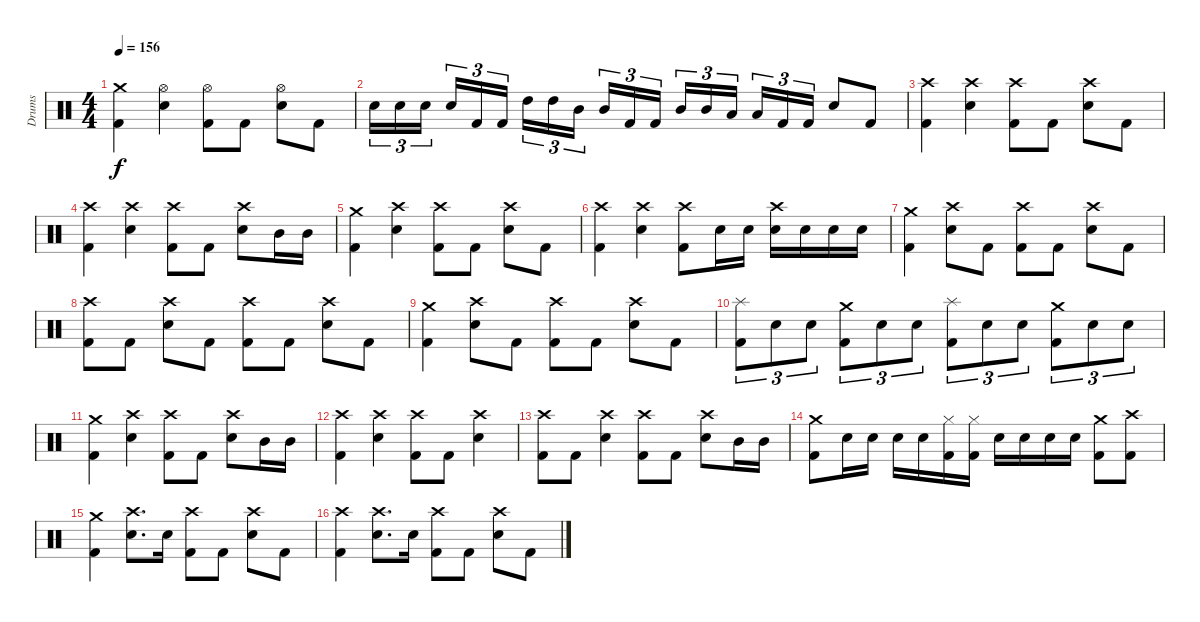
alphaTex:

\track ("Drums" "Drums") {instrument percussion}
\staff {score}
\articulation defaults
\ts (4 4)
\tempo 156
\clef neutral
\ks c
("Crash medium (hit)" "Kick (hit) 2").4{dy f} ("Hi-Hat (open)" "Snare (hit) 2").4 ("Hi-Hat (open)" "Kick (hit) 2").8 "Kick (hit) 2".8 ("Hi-Hat (open)" "Snare (hit) 2").8 "Kick (hit) 2".8 |
"Snare (hit) 2".16{tu (3 2)} "Snare (hit) 2".16{tu (3 2)} "Snare (hit) 2".16{tu (3 2)} "Snare (hit) 2".16{tu (3 2)} "Kick (hit) 2".16{tu (3 2)} "Kick (hit) 2".16{tu (3 2)} "High Tom (hit)".16{tu (3 2)} "High Tom (hit)".16{tu (3 2)} "Mid Tom (hit)".16{tu (3 2)} "Mid Tom (hit)".16{tu (3 2)} "Kick (hit) 2".16{tu (3 2)} "Kick (hit) 2".16{tu (3 2)} "Mid Tom (hit)".16{tu (3 2)} "Mid Tom (hit)".16{tu (3 2)} "Low Tom (hit)".16{tu (3 2)} "Low Tom (hit)".16{tu (3 2)} "Kick (hit) 2".16{tu (3 2)} "Kick (hit) 2".16{tu (3 2)} "Snare (hit) 2".8 "Kick (hit) 2".8 |
("Crash high (hit)" "Kick (hit) 2").4 ("Crash high (hit)" "Snare (hit) 2").4 ("Crash high (hit)" "Kick (hit) 2").8 "Kick (hit) 2".8 ("Crash high (hit)" "Snare (hit) 2").8 "Kick (hit) 2".8 |
("Crash high (hit)" "Kick (hit) 2").4 ("Crash high (hit)" "Snare (hit) 2").4 ("Crash high (hit)" "Kick (hit) 2").8 "Kick (hit) 2".8 ("Crash high (hit)" "Snare (hit) 2").8 "Mid Tom (hit)".16 "Mid Tom (hit)".16 |
("Crash medium (hit)" "Kick (hit) 2").4 ("Crash high (hit)" "Snare (hit) 2").4 ("Crash high (hit)" "Kick (hit) 2").8 "Kick (hit) 2".8 ("Crash high (hit)" "Snare (hit) 2").8 "Kick (hit) 2".8 |
("Crash high (hit)" "Kick (hit) 2").4 ("Crash high (hit)" "Snare (hit) 2").4 ("Crash high (hit)" "Kick (hit) 2").8 "Snare (hit) 2".16 "Snare (hit) 2".16 ("Crash high (hit)" "Snare (hit) 2").16 "Snare (hit) 2".16 "Snare (hit) 2".16 "Snare (hit) 2".16 |
("Crash medium (hit)" "Kick (hit) 2").4 ("Crash high (hit)" "Snare (hit) 2").8 "Kick (hit) 2".8 ("Crash high (hit)" "Kick (hit) 2").8 "Kick (hit) 2".8 ("Crash high (hit)" "Snare (hit) 2").8 "Kick (hit) 2".8 |
("Crash high (hit)" "Kick (hit) 2").8 "Kick (hit) 2".8 ("Crash high (hit)" "Snare (hit) 2").8 "Kick (hit) 2".8 ("Crash high (hit)" "Kick (hit) 2").8 "Kick (hit) 2".8 ("Crash high (hit)" "Snare (hit) 2").8 "Kick (hit) 2".8 |
("Crash medium (hit)" "Kick (hit) 2").4 ("Crash high (hit)" "Snare (hit) 2").8 "Kick (hit) 2".8 ("Crash high (hit)" "Kick (hit) 2").8 "Kick (hit) 2".8 ("Crash high (hit)" "Snare (hit) 2").8 "Kick (hit) 2".8 |
("Splash (hit)" "Kick (hit) 2").8{tu (3 2)} "Snare (hit) 2".8{tu (3 2)} "Snare (hit) 2".8{tu (3 2)} ("Crash medium (hit)" "Kick (hit) 2").8{tu (3 2)} "Snare (hit) 2".8{tu (3 2)} "Snare (hit) 2".8{tu (3 2)} ("Splash (hit)" "Kick (hit) 2").8{tu (3 2)} "Snare (hit) 2".8{tu (3 2)} "Snare (hit) 2".8{tu (3 2)} ("Crash medium (hit)" "Kick (hit) 2").8{tu (3 2)} "Snare (hit) 2".8{tu (3 2)} "Snare (hit) 2".8{tu (3 2)} |
("Crash medium (hit)" "Kick (hit) 2").4 ("Crash high (hit)" "Snare (hit) 2").4 ("Crash high (hit)" "Kick (hit) 2").8 "Kick (hit) 2".8 ("Crash high (hit)" "Snare (hit) 2").8 "Mid Tom (hit)".16 "Mid Tom (hit)".16 |
("Crash high (hit)" "Kick (hit) 2").4 ("Crash high (hit)" "Snare (hit) 2").4 ("Crash high (hit)" "Kick (hit) 2").8 "Kick (hit) 2".8 ("Crash high (hit)" "Snare (hit) 2").4 |
("Crash high (hit)" "Kick (hit) 2").8 "Kick (hit) 2".8 ("Crash high (hit)" "Snare (hit) 2").4 ("Crash high (hit)" "Kick (hit) 2").8 "Kick (hit) 2".8 ("Crash high (hit)" "Snare (hit) 2").8 "Mid Tom (hit)".16 "Mid Tom (hit)".16 |
("Crash medium (hit)" "Kick (hit) 2").8 "Snare (hit) 2".16 "Snare (hit) 2".16 "Snare (hit) 2".16 "Snare (hit) 2".16 ("Hi-Hat (closed)" "Kick (hit) 2").16 ("Hi-Hat (closed)" "Kick (hit) 2").16 "Snare (hit) 2".16 "Snare (hit) 2".16 "Snare (hit) 2".16 "Snare (hit) 2".16 ("Crash medium (hit)" "Kick (hit) 2").8 ("Crash high (hit)" "Kick (hit) 2").8 |
("Crash medium (hit)" "Kick (hit) 2").4 ("Crash high (hit)" "Snare (hit) 2").8{d} "Snare (hit) 2".16 ("Crash high (hit)" "Kick (hit) 2").8 "Kick (hit) 2".8 ("Crash high (hit)" "Snare (hit) 2").8 "Kick (hit) 2".8 |
("Crash high (hit)" "Kick (hit) 2").4 ("Crash high (hit)" "Snare (hit) 2").8{d} "Snare (hit) 2".16 ("Crash high (hit)" "Kick (hit) 2").8 "Kick (hit) 2".8 ("Crash high (hit)" "Snare (hit) 2").8 "Kick (hit) 2".8
